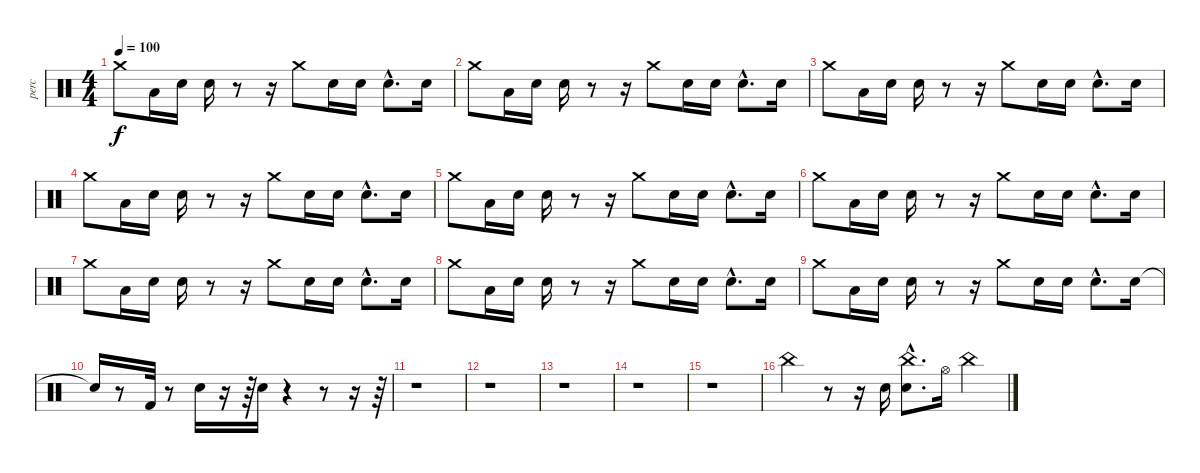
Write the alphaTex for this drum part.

\track ("perc" "perc") {instrument percussion}
\staff {score}
\articulation defaults
\ts (4 4)
\tempo 100
\clef neutral
\ks c "Crash medium (hit)".8{dy f} "Low Floor Tom (hit)".16 "Electric Snare (hit)".16 "Snare (hit) 2".16
r.8 r.16 "Crash medium (hit)".8 "Electric Snare (hit)".16 "Electric Snare (hit)".16 "Snare (hit) 2"{hac}.8{d} "Electric Snare (hit)".16 |
"Crash medium (hit)".8 "Low Floor Tom (hit)".16 "Electric Snare (hit)".16 "Snare (hit) 2".16 r.8 r.16 "Crash medium (hit)".8 "Electric Snare (hit)".16 "Electric Snare (hit)".16 "Snare (hit) 2"{hac}.8{d} "Electric Snare (hit)".16 |
"Crash medium (hit)".8 "Low Floor Tom (hit)".16 "Electric Snare (hit)".16 "Snare (hit) 2".16 r.8 r.16 "Crash medium (hit)".8 "Electric Snare (hit)".16 "Electric Snare (hit)".16 "Snare (hit) 2"{hac}.8{d} "Electric Snare (hit)".16 |
"Crash medium (hit)".8 "Low Floor Tom (hit)".16 "Electric Snare (hit)".16 "Snare (hit) 2".16 r.8 r.16 "Crash medium (hit)".8 "Electric Snare (hit)".16 "Electric Snare (hit)".16 "Snare (hit) 2"{hac}.8{d} "Electric Snare (hit)".16 |
"Crash medium (hit)".8 "Low Floor Tom (hit)".16 "Electric Snare (hit)".16 "Snare (hit) 2".16 r.8 r.16 "Crash medium (hit)".8 "Electric Snare (hit)".16 "Electric Snare (hit)".16 "Snare (hit) 2"{hac}.8{d} "Electric Snare (hit)".16 |
"Crash medium (hit)".8 "Low Floor Tom (hit)".16 "Electric Snare (hit)".16 "Snare (hit) 2".16 r.8 r.16 "Crash medium (hit)".8 "Electric Snare (hit)".16 "Electric Snare (hit)".16 "Snare (hit) 2"{hac}.8{d} "Electric Snare (hit)".16 |
"Crash medium (hit)".8 "Low Floor Tom (hit)".16 "Electric Snare (hit)".16 "Snare (hit) 2".16 r.8 r.16 "Crash medium (hit)".8 "Electric Snare (hit)".16 "Electric Snare (hit)".16 "Snare (hit) 2"{hac}.8{d} "Electric Snare (hit)".16 |
"Crash medium (hit)".8 "Low Floor Tom (hit)".16 "Electric Snare (hit)".16 "Snare (hit) 2".16 r.8 r.16 "Crash medium (hit)".8 "Electric Snare (hit)".16 "Electric Snare (hit)".16 "Snare (hit) 2"{hac}.8{d} "Electric Snare (hit)".16 |
"Crash medium (hit)".8 "Low Floor Tom (hit)".16 "Electric Snare (hit)".16 "Snare (hit) 2".16 r.8 r.16 "Crash medium (hit)".8 "Electric Snare (hit)".16 "Electric Snare (hit)".16 "Snare (hit) 2"{hac}.8{d} "Electric Snare (hit)".16 |
"Snare (hit)"{t}.16 r.8 "Kick (hit) 2".32 r.8 "Snare (hit) 2".16 r.16 r.64 "Snare (hit) 2".16 r.4 r.8 r.16 r.64 |
r.1 |
r.1 |
r.1 |
r.1 |
r.1 |
"China (hit)".4 r.8 r.16 "Hand Clap (hit)".16 ("Snare (hit) 2"{hac} "China (hit)"{hac}).8{d} "Hi-Hat (open)".16 "China (hit)".4
